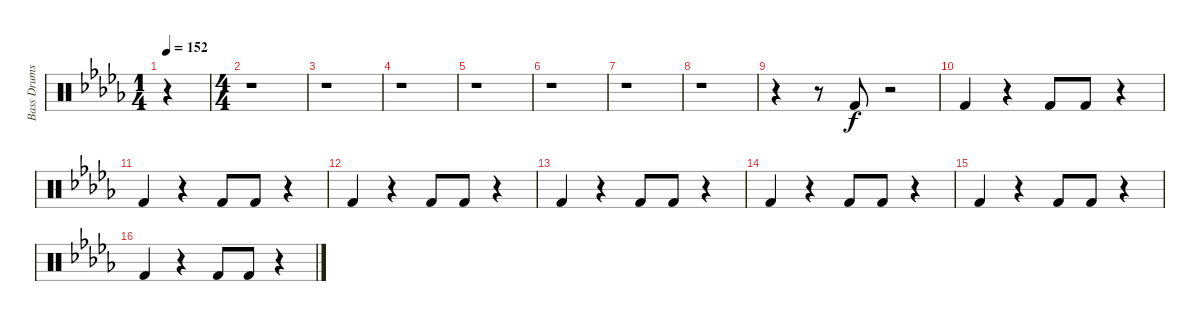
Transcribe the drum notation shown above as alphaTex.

\track ("Bass Drums" "Bass Drums") {instrument percussion}
\staff {score}
\articulation defaults
\ts (1 4)
\tempo 152
\clef neutral
\ks db
r.4{dy f} |
\ts (4 4)
r.1 |
r.1 |
r.1 |
r.1 |
r.1 |
r.1 |
r.1 |
r.4 r.8 "Kick (hit) 2".8 r.2 |
"Kick (hit) 2".4 r.4 "Kick (hit) 2".8 "Kick (hit) 2".8 r.4 |
"Kick (hit) 2".4 r.4 "Kick (hit) 2".8 "Kick (hit) 2".8 r.4 |
"Kick (hit) 2".4 r.4 "Kick (hit) 2".8 "Kick (hit) 2".8 r.4 |
"Kick (hit) 2".4 r.4 "Kick (hit) 2".8 "Kick (hit) 2".8 r.4 |
"Kick (hit) 2".4 r.4 "Kick (hit) 2".8 "Kick (hit) 2".8 r.4 |
"Kick (hit) 2".4 r.4 "Kick (hit) 2".8 "Kick (hit) 2".8 r.4 |
"Kick (hit) 2".4 r.4 "Kick (hit) 2".8 "Kick (hit) 2".8 r.4
